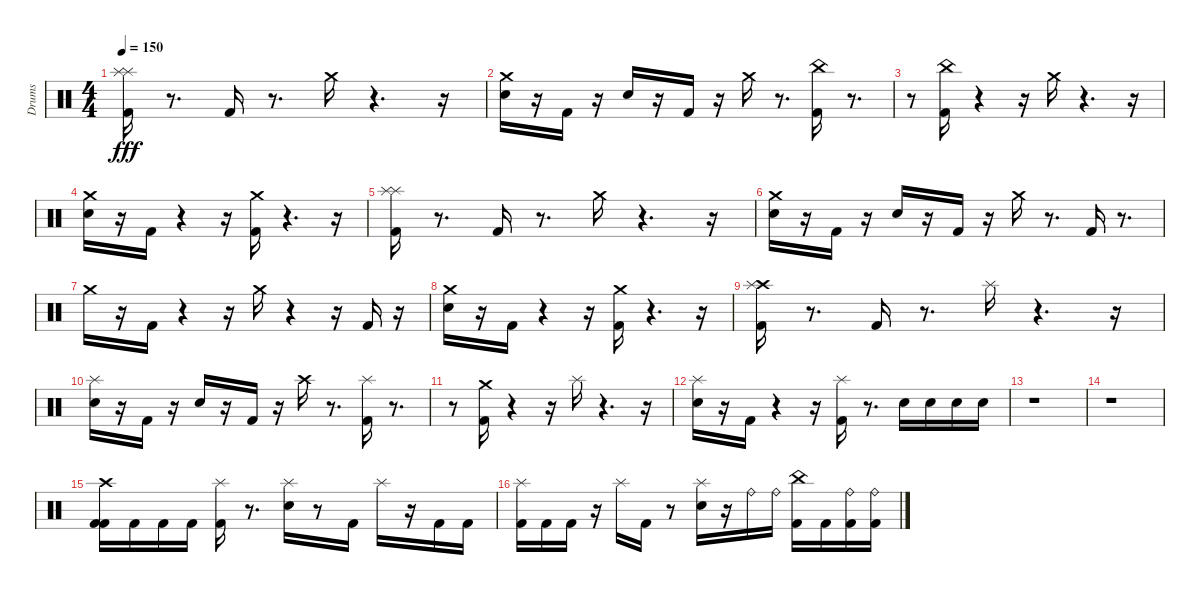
\track ("Drums" "Drums") {instrument percussion}
\staff {score}
\articulation defaults
\ts (4 4)
\tempo 150
\clef neutral
\ks c
("Splash (hit)" "Kick (hit) 2" "Splash (hit)").16{dy fff} r.8{d} "Kick (hit) 2".16 r.8{d} "Crash medium (hit)".16 r.4{d} r.16 |
("Snare (hit) 2" "Crash medium (hit)").16 r.16 "Kick (hit) 2".16 r.16 "Snare (hit) 2".16 r.16 "Kick (hit) 2".16 r.16 "Crash medium (hit)".16 r.8{d} ("Kick (hit) 2" "China (hit)").16 r.8{d} |
r.8 ("Kick (hit) 2" "China (hit)").16 r.4 r.16 "Crash medium (hit)".16 r.4{d} r.16 |
("Crash medium (hit)" "Snare (hit) 2").16 r.16 "Kick (hit) 2".16 r.4 r.16 ("Kick (hit) 2" "Crash medium (hit)").16 r.4{d} r.16 |
("Splash (hit)" "Kick (hit) 2" "Splash (hit)").16 r.8{d} "Kick (hit) 2".16 r.8{d} "Crash medium (hit)".16 r.4{d} r.16 |
("Snare (hit) 2" "Crash medium (hit)").16 r.16 "Kick (hit) 2".16 r.16 "Snare (hit) 2".16 r.16 "Kick (hit) 2".16 r.16 "Crash medium (hit)".16 r.8{d} "Kick (hit) 2".16 r.8{d} |
"Crash medium (hit)".16 r.16 "Kick (hit) 2".16 r.4 r.16 "Crash medium (hit)".16 r.4 r.16 "Kick (hit) 2".16 r.16 |
("Crash medium (hit)" "Snare (hit) 2").16 r.16 "Kick (hit) 2".16 r.4 r.16 ("Kick (hit) 2" "Crash medium (hit)").16 r.4{d} r.16 |
("Crash high (hit)" "Kick (hit) 2" "Splash (hit)").16 r.8{d} "Kick (hit) 2".16 r.8{d} "Splash (hit)".16 r.4{d} r.16 |
("Snare (hit) 2" "Splash (hit)").16 r.16 "Kick (hit) 2".16 r.16 "Snare (hit) 2".16 r.16 "Kick (hit) 2".16 r.16 "Crash high (hit)".16 r.8{d} ("Kick (hit) 2" "Splash (hit)").16 r.8{d} |
r.8 ("Crash medium (hit)" "Kick (hit) 2").16 r.4 r.16 "Splash (hit)".16 r.4{d} r.16 |
("Splash (hit)" "Snare (hit) 2").16 r.16 "Kick (hit) 2".16 r.4 r.16 ("Kick (hit) 2" "Splash (hit)").16 r.8{d} "Snare (hit) 2".16 "Snare (hit) 2".16 "Snare (hit) 2".16 "Snare (hit) 2".16 |
r.1 |
r.1 |
("Kick (hit) 2" "Crash high (hit)" "Kick (hit) 2").16 "Kick (hit) 2".16 "Kick (hit) 2".16 "Kick (hit) 2".16 ("Kick (hit) 2" "Splash (hit)").16 r.8{d} ("Snare (hit) 2" "Splash (hit)").16 r.8 "Kick (hit) 2".16 "Splash (hit)".16 r.16 "Kick (hit) 2".16 "Kick (hit) 2".16 |
("Kick (hit) 2" "Splash (hit)").16 "Kick (hit) 2".16 "Kick (hit) 2".16 r.16 "Splash (hit)".16 "Kick (hit) 2".16 r.8 ("Snare (hit) 2" "Splash (hit)").16 r.16 "Ride (bell)".16 "Ride (bell)".16 ("Kick (hit) 2" "China (hit)").16 "Kick (hit) 2".16 ("Kick (hit) 2" "Ride (bell)").16 ("Kick (hit) 2" "Ride (bell)").16
